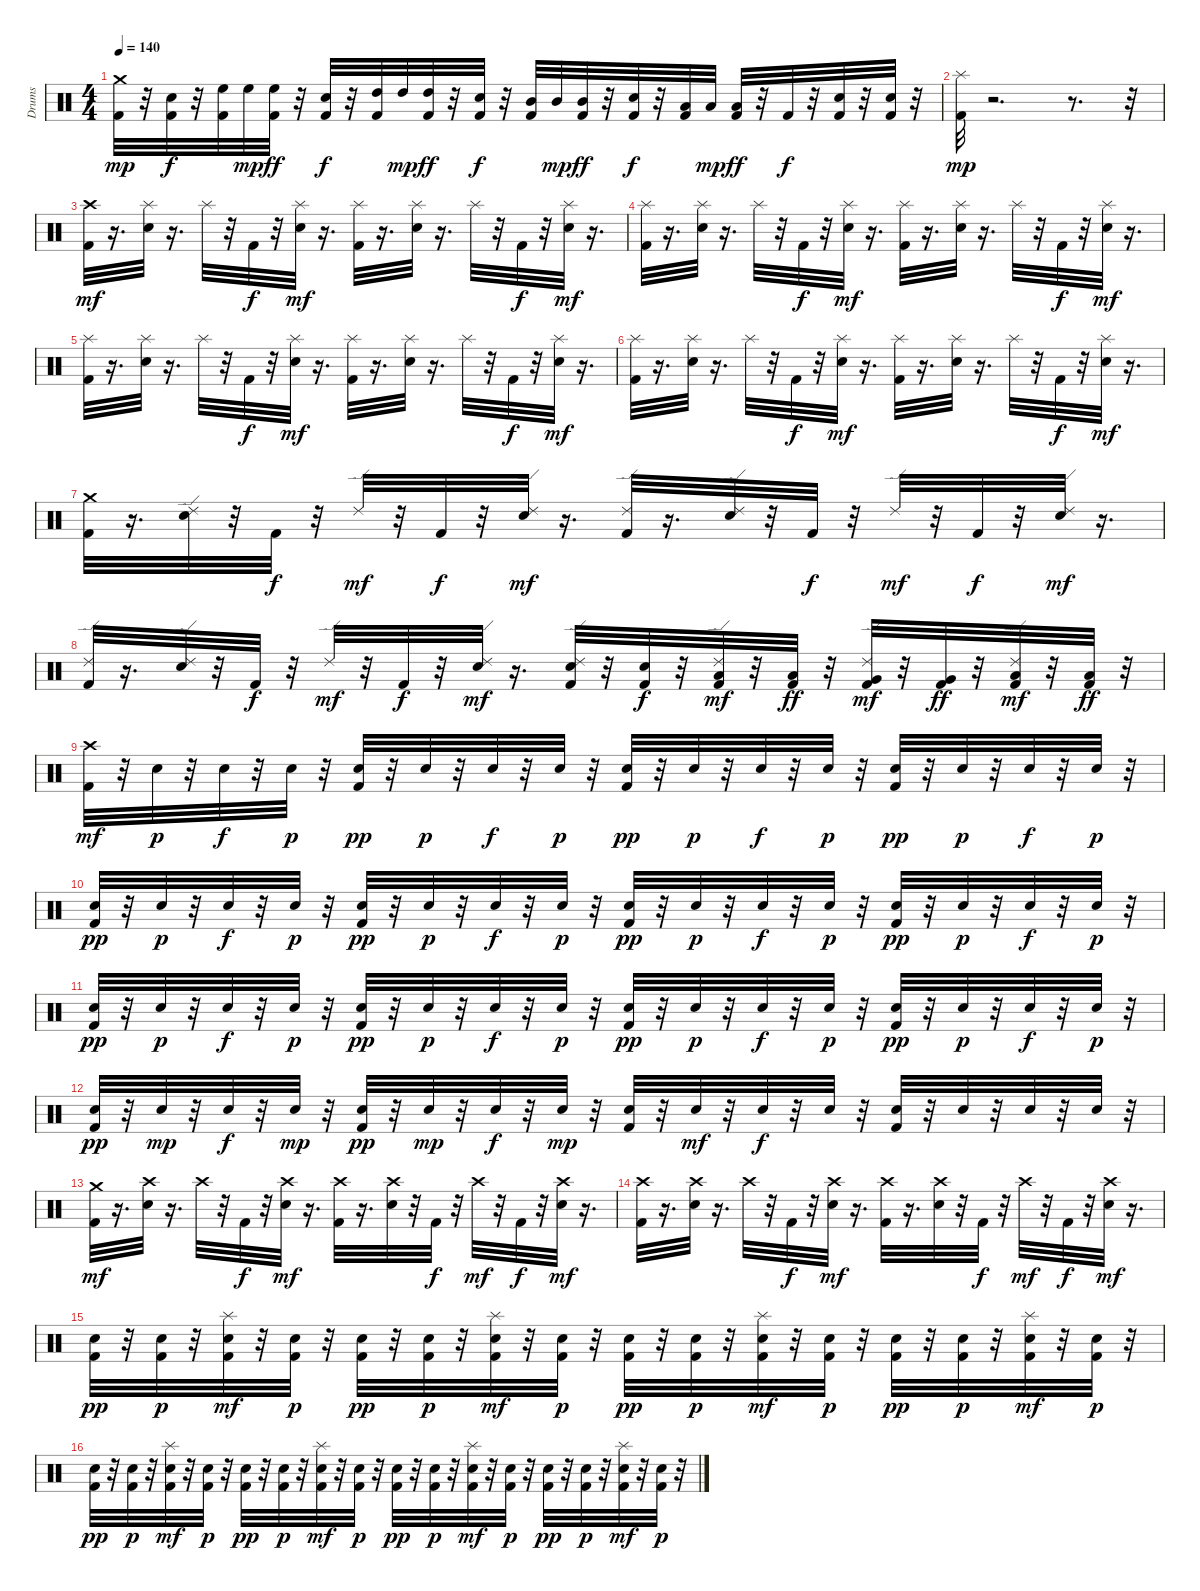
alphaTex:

\track ("Drums" "Drums") {instrument percussion}
\staff {score}
\articulation defaults
\ts (4 4)
\tempo 140
\clef neutral
\ks c
("Kick (hit) 2" "Crash medium (hit)").32{dy mp} r.32 ("Kick (hit) 2" "Electric Snare (hit)").32{dy f} r.32 ("Kick (hit) 2" "High Floor Tom (hit)").32 "High Floor Tom (hit)".32{dy mp} ("Kick (hit) 2" "High Floor Tom (hit)").32{dy ff} r.32 ("Kick (hit) 2" "Electric Snare (hit)").32{dy f} r.32 ("Kick (hit) 2" "High Tom (hit)").32 "High Tom (hit)".32{dy mp} ("Kick (hit) 2" "High Tom (hit)").32{dy ff} r.32 ("Kick (hit) 2" "Electric Snare (hit)").32{dy f} r.32 ("Kick (hit) 2" "Mid Tom (hit)").32 "Mid Tom (hit)".32{dy mp} ("Kick (hit) 2" "Mid Tom (hit)").32{dy ff} r.32 ("Kick (hit) 2" "Electric Snare (hit)").32{dy f} r.32 ("Kick (hit) 2" "Low Tom (hit)").32 "Low Tom (hit)".32{dy mp} ("Kick (hit) 2" "Low Tom (hit)").32{dy ff} r.32 "Kick (hit) 2".32{dy f} r.32 ("Kick (hit) 2" "Electric Snare (hit)").32 r.32 ("Kick (hit) 2" "Electric Snare (hit)").32 r.32 |
("Kick (hit) 2" "Splash (hit)").32{dy mp} r.2{d} r.8{d} r.32 |
("Kick (hit) 2" "Crash high (hit)").32{dy mf} r.16{d} ("Electric Snare (hit)" "Splash (hit)").32 r.16{d} "Splash (hit)".32 r.32 "Kick (hit) 2".32{dy f} r.32 ("Electric Snare (hit)" "Splash (hit)").32{dy mf} r.16{d} ("Kick (hit) 2" "Splash (hit)").32 r.16{d} ("Electric Snare (hit)" "Splash (hit)").32 r.16{d} "Splash (hit)".32 r.32 "Kick (hit) 2".32{dy f} r.32 ("Electric Snare (hit)" "Splash (hit)").32{dy mf} r.16{d} |
("Kick (hit) 2" "Splash (hit)").32 r.16{d} ("Electric Snare (hit)" "Splash (hit)").32 r.16{d} "Splash (hit)".32 r.32 "Kick (hit) 2".32{dy f} r.32 ("Electric Snare (hit)" "Splash (hit)").32{dy mf} r.16{d} ("Kick (hit) 2" "Splash (hit)").32 r.16{d} ("Electric Snare (hit)" "Splash (hit)").32 r.16{d} "Splash (hit)".32 r.32 "Kick (hit) 2".32{dy f} r.32 ("Electric Snare (hit)" "Splash (hit)").32{dy mf} r.16{d} |
("Kick (hit) 2" "Splash (hit)").32 r.16{d} ("Electric Snare (hit)" "Splash (hit)").32 r.16{d} "Splash (hit)".32 r.32 "Kick (hit) 2".32{dy f} r.32 ("Electric Snare (hit)" "Splash (hit)").32{dy mf} r.16{d} ("Kick (hit) 2" "Splash (hit)").32 r.16{d} ("Electric Snare (hit)" "Splash (hit)").32 r.16{d} "Splash (hit)".32 r.32 "Kick (hit) 2".32{dy f} r.32 ("Electric Snare (hit)" "Splash (hit)").32{dy mf} r.16{d} |
("Kick (hit) 2" "Splash (hit)").32 r.16{d} ("Electric Snare (hit)" "Splash (hit)").32 r.16{d} "Splash (hit)".32 r.32 "Kick (hit) 2".32{dy f} r.32 ("Electric Snare (hit)" "Splash (hit)").32{dy mf} r.16{d} ("Kick (hit) 2" "Splash (hit)").32 r.16{d} ("Electric Snare (hit)" "Splash (hit)").32 r.16{d} "Splash (hit)".32 r.32 "Kick (hit) 2".32{dy f} r.32 ("Electric Snare (hit)" "Splash (hit)").32{dy mf} r.16{d} |
("Kick (hit) 2" "Crash medium (hit)").32 r.16{d} ("Electric Snare (hit)" "Ride (edge) 2").32 r.32 "Kick (hit) 2".32{dy f} r.32 "Ride (edge) 2".32{dy mf} r.32 "Kick (hit) 2".32{dy f} r.32 ("Electric Snare (hit)" "Ride (edge) 2").32{dy mf} r.16{d} ("Kick (hit) 2" "Ride (edge) 2").32 r.16{d} ("Electric Snare (hit)" "Ride (edge) 2").32 r.32 "Kick (hit) 2".32{dy f} r.32 "Ride (edge) 2".32{dy mf} r.32 "Kick (hit) 2".32{dy f} r.32 ("Electric Snare (hit)" "Ride (edge) 2").32{dy mf} r.16{d} |
("Kick (hit) 2" "Ride (edge) 2").32 r.16{d} ("Electric Snare (hit)" "Ride (edge) 2").32 r.32 "Kick (hit) 2".32{dy f} r.32 "Ride (edge) 2".32{dy mf} r.32 "Kick (hit) 2".32{dy f} r.32 ("Electric Snare (hit)" "Ride (edge) 2").32{dy mf} r.16{d} ("Kick (hit) 2" "Electric Snare (hit)" "Ride (edge) 2").32 r.32 ("Kick (hit) 2" "Electric Snare (hit)").32{dy f} r.32 ("Kick (hit) 2" "Low Tom (hit)" "Ride (edge) 2").32{dy mf} r.32 ("Kick (hit) 2" "Low Tom (hit)").32{dy ff} r.32 ("Kick (hit) 2" "Very Low Tom (hit)" "Ride (edge) 2").32{dy mf} r.32 ("Kick (hit) 2" "Very Low Tom (hit)").32{dy ff} r.32 ("Kick (hit) 2" "Low Floor Tom (hit)" "Ride (edge) 2").32{dy mf} r.32 ("Kick (hit) 2" "Low Floor Tom (hit)").32{dy ff} r.32 |
("Kick (hit) 2" "Crash high (hit)").32{dy mf} r.32 "Electric Snare (hit)".32{dy p} r.32 "Electric Snare (hit)".32{dy f} r.32 "Electric Snare (hit)".32{dy p} r.32 ("Kick (hit) 2" "Electric Snare (hit)").32{dy pp} r.32 "Electric Snare (hit)".32{dy p} r.32 "Electric Snare (hit)".32{dy f} r.32 "Electric Snare (hit)".32{dy p} r.32 ("Kick (hit) 2" "Electric Snare (hit)").32{dy pp} r.32 "Electric Snare (hit)".32{dy p} r.32 "Electric Snare (hit)".32{dy f} r.32 "Electric Snare (hit)".32{dy p} r.32 ("Kick (hit) 2" "Electric Snare (hit)").32{dy pp} r.32 "Electric Snare (hit)".32{dy p} r.32 "Electric Snare (hit)".32{dy f} r.32 "Electric Snare (hit)".32{dy p} r.32 |
("Kick (hit) 2" "Electric Snare (hit)").32{dy pp} r.32 "Electric Snare (hit)".32{dy p} r.32 "Electric Snare (hit)".32{dy f} r.32 "Electric Snare (hit)".32{dy p} r.32 ("Kick (hit) 2" "Electric Snare (hit)").32{dy pp} r.32 "Electric Snare (hit)".32{dy p} r.32 "Electric Snare (hit)".32{dy f} r.32 "Electric Snare (hit)".32{dy p} r.32 ("Kick (hit) 2" "Electric Snare (hit)").32{dy pp} r.32 "Electric Snare (hit)".32{dy p} r.32 "Electric Snare (hit)".32{dy f} r.32 "Electric Snare (hit)".32{dy p} r.32 ("Kick (hit) 2" "Electric Snare (hit)").32{dy pp} r.32 "Electric Snare (hit)".32{dy p} r.32 "Electric Snare (hit)".32{dy f} r.32 "Electric Snare (hit)".32{dy p} r.32 |
("Kick (hit) 2" "Electric Snare (hit)").32{dy pp} r.32 "Electric Snare (hit)".32{dy p} r.32 "Electric Snare (hit)".32{dy f} r.32 "Electric Snare (hit)".32{dy p} r.32 ("Kick (hit) 2" "Electric Snare (hit)").32{dy pp} r.32 "Electric Snare (hit)".32{dy p} r.32 "Electric Snare (hit)".32{dy f} r.32 "Electric Snare (hit)".32{dy p} r.32 ("Kick (hit) 2" "Electric Snare (hit)").32{dy pp} r.32 "Electric Snare (hit)".32{dy p} r.32 "Electric Snare (hit)".32{dy f} r.32 "Electric Snare (hit)".32{dy p} r.32 ("Kick (hit) 2" "Electric Snare (hit)").32{dy pp} r.32 "Electric Snare (hit)".32{dy p} r.32 "Electric Snare (hit)".32{dy f} r.32 "Electric Snare (hit)".32{dy p} r.32 |
("Kick (hit) 2" "Electric Snare (hit)").32{dy pp} r.32 "Electric Snare (hit)".32{dy mp} r.32 "Electric Snare (hit)".32{dy f} r.32 "Electric Snare (hit)".32{dy mp} r.32 ("Kick (hit) 2" "Electric Snare (hit)").32{dy pp} r.32 "Electric Snare (hit)".32{dy mp} r.32 "Electric Snare (hit)".32{dy f} r.32 "Electric Snare (hit)".32{dy mp} r.32 ("Kick (hit) 2" "Electric Snare (hit)").32 r.32 "Electric Snare (hit)".32{dy mf} r.32 "Electric Snare (hit)".32{dy f} r.32 "Electric Snare (hit)".32 r.32 ("Kick (hit) 2" "Electric Snare (hit)").32 r.32 "Electric Snare (hit)".32 r.32 "Electric Snare (hit)".32 r.32 "Electric Snare (hit)".32 r.32 |
("Kick (hit) 2" "Crash medium (hit)").32{dy mf} r.16{d} ("Electric Snare (hit)" "Crash high (hit)").32 r.16{d} "Crash high (hit)".32 r.32 "Kick (hit) 2".32{dy f} r.32 ("Electric Snare (hit)" "Crash high (hit)").32{dy mf} r.16{d} ("Kick (hit) 2" "Crash high (hit)").32 r.16{d} ("Electric Snare (hit)" "Crash high (hit)").32 r.32 "Kick (hit) 2".32{dy f} r.32 "Crash high (hit)".32{dy mf} r.32 "Kick (hit) 2".32{dy f} r.32 ("Electric Snare (hit)" "Crash high (hit)").32{dy mf} r.16{d} |
("Kick (hit) 2" "Crash high (hit)").32 r.16{d} ("Electric Snare (hit)" "Crash high (hit)").32 r.16{d} "Crash high (hit)".32 r.32 "Kick (hit) 2".32{dy f} r.32 ("Electric Snare (hit)" "Crash high (hit)").32{dy mf} r.16{d} ("Kick (hit) 2" "Crash high (hit)").32 r.16{d} ("Electric Snare (hit)" "Crash high (hit)").32 r.32 "Kick (hit) 2".32{dy f} r.32 "Crash high (hit)".32{dy mf} r.32 "Kick (hit) 2".32{dy f} r.32 ("Electric Snare (hit)" "Crash high (hit)").32{dy mf} r.16{d} |
("Kick (hit) 2" "Electric Snare (hit)").32{dy pp} r.32 ("Kick (hit) 2" "Electric Snare (hit)").32{dy p} r.32 ("Kick (hit) 2" "Electric Snare (hit)" "Splash (hit)").32{dy mf} r.32 ("Kick (hit) 2" "Electric Snare (hit)").32{dy p} r.32 ("Kick (hit) 2" "Electric Snare (hit)").32{dy pp} r.32 ("Kick (hit) 2" "Electric Snare (hit)").32{dy p} r.32 ("Kick (hit) 2" "Electric Snare (hit)" "Splash (hit)").32{dy mf} r.32 ("Kick (hit) 2" "Electric Snare (hit)").32{dy p} r.32 ("Kick (hit) 2" "Electric Snare (hit)").32{dy pp} r.32 ("Kick (hit) 2" "Electric Snare (hit)").32{dy p} r.32 ("Kick (hit) 2" "Electric Snare (hit)" "Splash (hit)").32{dy mf} r.32 ("Kick (hit) 2" "Electric Snare (hit)").32{dy p} r.32 ("Kick (hit) 2" "Electric Snare (hit)").32{dy pp} r.32 ("Kick (hit) 2" "Electric Snare (hit)").32{dy p} r.32 ("Kick (hit) 2" "Electric Snare (hit)" "Splash (hit)").32{dy mf} r.32 ("Kick (hit) 2" "Electric Snare (hit)").32{dy p} r.32 |
("Kick (hit) 2" "Electric Snare (hit)").32{dy pp} r.32 ("Kick (hit) 2" "Electric Snare (hit)").32{dy p} r.32 ("Kick (hit) 2" "Electric Snare (hit)" "Splash (hit)").32{dy mf} r.32 ("Kick (hit) 2" "Electric Snare (hit)").32{dy p} r.32 ("Kick (hit) 2" "Electric Snare (hit)").32{dy pp} r.32 ("Kick (hit) 2" "Electric Snare (hit)").32{dy p} r.32 ("Kick (hit) 2" "Electric Snare (hit)" "Splash (hit)").32{dy mf} r.32 ("Kick (hit) 2" "Electric Snare (hit)").32{dy p} r.32 ("Kick (hit) 2" "Electric Snare (hit)").32{dy pp} r.32 ("Kick (hit) 2" "Electric Snare (hit)").32{dy p} r.32 ("Kick (hit) 2" "Electric Snare (hit)" "Splash (hit)").32{dy mf} r.32 ("Kick (hit) 2" "Electric Snare (hit)").32{dy p} r.32 ("Kick (hit) 2" "Electric Snare (hit)").32{dy pp} r.32 ("Kick (hit) 2" "Electric Snare (hit)").32{dy p} r.32 ("Kick (hit) 2" "Electric Snare (hit)" "Splash (hit)").32{dy mf} r.32 ("Kick (hit) 2" "Electric Snare (hit)").32{dy p} r.32
